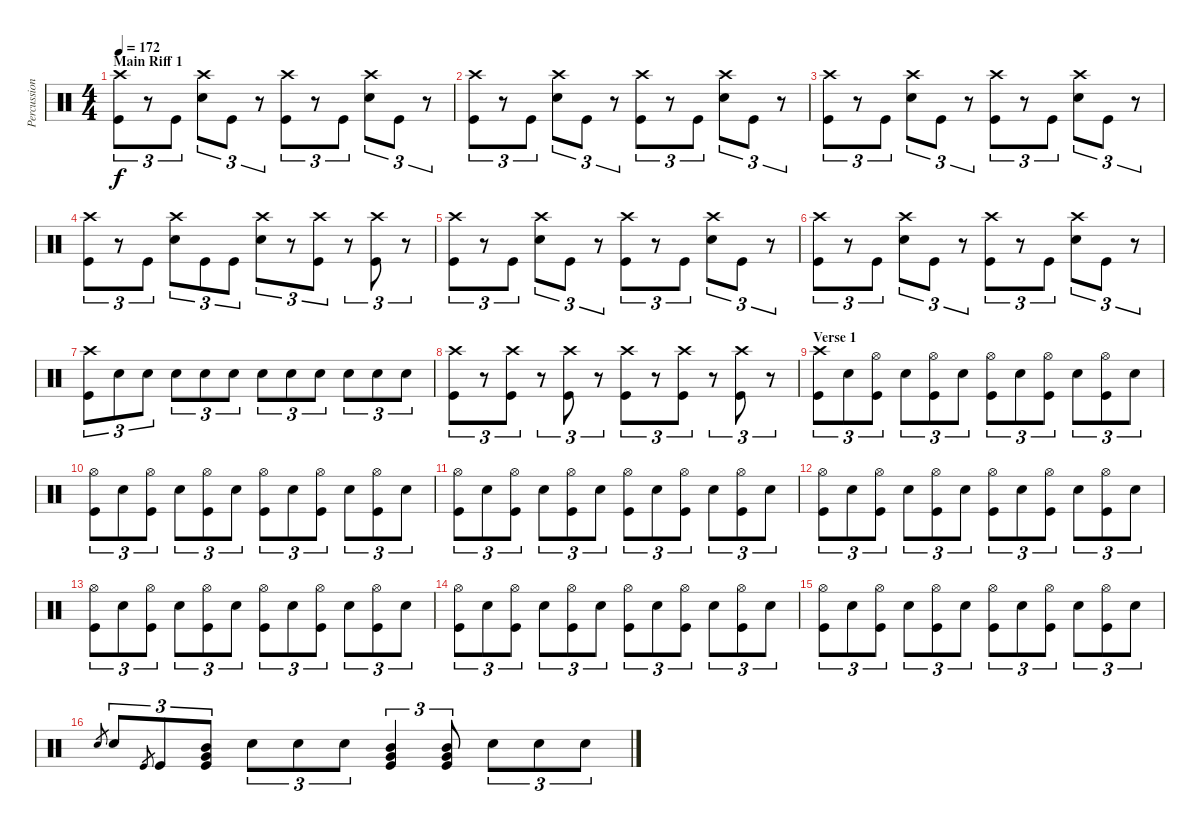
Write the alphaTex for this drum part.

\track ("Percussion" "Percussion") {instrument percussion}
\staff {score}
\articulation defaults
\ts (4 4)
\section ("" "Main Riff 1")
\tempo 172
\clef neutral
\ks c
("Crash high (hit)" "Kick (hit)").8{tu (3 2) dy f} r.8{tu (3 2)} "Kick (hit)".8{tu (3 2)} ("Crash high (hit)" "Snare (hit) 2").8{tu (3 2)} "Kick (hit)".8{tu (3 2)} r.8{tu (3 2)} ("Crash high (hit)" "Kick (hit)").8{tu (3 2)} r.8{tu (3 2)} "Kick (hit)".8{tu (3 2)} ("Crash high (hit)" "Snare (hit) 2").8{tu (3 2)} "Kick (hit)".8{tu (3 2)} r.8{tu (3 2)} |
("Crash high (hit)" "Kick (hit)").8{tu (3 2)} r.8{tu (3 2)} "Kick (hit)".8{tu (3 2)} ("Crash high (hit)" "Snare (hit) 2").8{tu (3 2)} "Kick (hit)".8{tu (3 2)} r.8{tu (3 2)} ("Crash high (hit)" "Kick (hit)").8{tu (3 2)} r.8{tu (3 2)} "Kick (hit)".8{tu (3 2)} ("Crash high (hit)" "Snare (hit) 2").8{tu (3 2)} "Kick (hit)".8{tu (3 2)} r.8{tu (3 2)} |
("Crash high (hit)" "Kick (hit)").8{tu (3 2)} r.8{tu (3 2)} "Kick (hit)".8{tu (3 2)} ("Crash high (hit)" "Snare (hit) 2").8{tu (3 2)} "Kick (hit)".8{tu (3 2)} r.8{tu (3 2)} ("Crash high (hit)" "Kick (hit)").8{tu (3 2)} r.8{tu (3 2)} "Kick (hit)".8{tu (3 2)} ("Crash high (hit)" "Snare (hit) 2").8{tu (3 2)} "Kick (hit)".8{tu (3 2)} r.8{tu (3 2)} |
("Crash high (hit)" "Kick (hit)").8{tu (3 2)} r.8{tu (3 2)} "Kick (hit)".8{tu (3 2)} ("Crash high (hit)" "Snare (hit) 2").8{tu (3 2)} "Kick (hit)".8{tu (3 2)} "Kick (hit)".8{tu (3 2)} ("Crash high (hit)" "Snare (hit) 2").8{tu (3 2)} r.8{tu (3 2)} ("Crash high (hit)" "Kick (hit)").8{tu (3 2)} r.8{tu (3 2)} ("Crash high (hit)" "Kick (hit)").8{tu (3 2)} r.8{tu (3 2)} |
("Crash high (hit)" "Kick (hit)").8{tu (3 2)} r.8{tu (3 2)} "Kick (hit)".8{tu (3 2)} ("Crash high (hit)" "Snare (hit) 2").8{tu (3 2)} "Kick (hit)".8{tu (3 2)} r.8{tu (3 2)} ("Crash high (hit)" "Kick (hit)").8{tu (3 2)} r.8{tu (3 2)} "Kick (hit)".8{tu (3 2)} ("Crash high (hit)" "Snare (hit) 2").8{tu (3 2)} "Kick (hit)".8{tu (3 2)} r.8{tu (3 2)} |
("Crash high (hit)" "Kick (hit)").8{tu (3 2)} r.8{tu (3 2)} "Kick (hit)".8{tu (3 2)} ("Crash high (hit)" "Snare (hit) 2").8{tu (3 2)} "Kick (hit)".8{tu (3 2)} r.8{tu (3 2)} ("Crash high (hit)" "Kick (hit)").8{tu (3 2)} r.8{tu (3 2)} "Kick (hit)".8{tu (3 2)} ("Crash high (hit)" "Snare (hit) 2").8{tu (3 2)} "Kick (hit)".8{tu (3 2)} r.8{tu (3 2)} |
("Crash high (hit)" "Kick (hit)").8{tu (3 2)} "Snare (hit) 2".8{tu (3 2)} "Snare (hit) 2".8{tu (3 2)} "Snare (hit) 2".8{tu (3 2)} "Snare (hit) 2".8{tu (3 2)} "Snare (hit) 2".8{tu (3 2)} "Snare (hit) 2".8{tu (3 2)} "Snare (hit) 2".8{tu (3 2)} "Snare (hit) 2".8{tu (3 2)} "Snare (hit) 2".8{tu (3 2)} "Snare (hit) 2".8{tu (3 2)} "Snare (hit) 2".8{tu (3 2)} |
("Crash high (hit)" "Kick (hit)").8{tu (3 2)} r.8{tu (3 2)} ("Crash high (hit)" "Kick (hit)").8{tu (3 2)} r.8{tu (3 2)} ("Crash high (hit)" "Kick (hit)").8{tu (3 2)} r.8{tu (3 2)} ("Crash high (hit)" "Kick (hit)").8{tu (3 2)} r.8{tu (3 2)} ("Crash high (hit)" "Kick (hit)").8{tu (3 2)} r.8{tu (3 2)} ("Crash high (hit)" "Kick (hit)").8{tu (3 2)} r.8{tu (3 2)} |
\section ("" "Verse 1")
("Crash high (hit)" "Kick (hit)").8{tu (3 2)} "Snare (hit) 2".8{tu (3 2)} ("Hi-Hat (open)" "Kick (hit)").8{tu (3 2)} "Snare (hit) 2".8{tu (3 2)} ("Hi-Hat (open)" "Kick (hit)").8{tu (3 2)} "Snare (hit) 2".8{tu (3 2)} ("Hi-Hat (open)" "Kick (hit)").8{tu (3 2)} "Snare (hit) 2".8{tu (3 2)} ("Hi-Hat (open)" "Kick (hit)").8{tu (3 2)} "Snare (hit) 2".8{tu (3 2)} ("Hi-Hat (open)" "Kick (hit)").8{tu (3 2)} "Snare (hit) 2".8{tu (3 2)} |
("Hi-Hat (open)" "Kick (hit)").8{tu (3 2)} "Snare (hit) 2".8{tu (3 2)} ("Hi-Hat (open)" "Kick (hit)").8{tu (3 2)} "Snare (hit) 2".8{tu (3 2)} ("Hi-Hat (open)" "Kick (hit)").8{tu (3 2)} "Snare (hit) 2".8{tu (3 2)} ("Hi-Hat (open)" "Kick (hit)").8{tu (3 2)} "Snare (hit) 2".8{tu (3 2)} ("Hi-Hat (open)" "Kick (hit)").8{tu (3 2)} "Snare (hit) 2".8{tu (3 2)} ("Hi-Hat (open)" "Kick (hit)").8{tu (3 2)} "Snare (hit) 2".8{tu (3 2)} |
("Hi-Hat (open)" "Kick (hit)").8{tu (3 2)} "Snare (hit) 2".8{tu (3 2)} ("Hi-Hat (open)" "Kick (hit)").8{tu (3 2)} "Snare (hit) 2".8{tu (3 2)} ("Hi-Hat (open)" "Kick (hit)").8{tu (3 2)} "Snare (hit) 2".8{tu (3 2)} ("Hi-Hat (open)" "Kick (hit)").8{tu (3 2)} "Snare (hit) 2".8{tu (3 2)} ("Hi-Hat (open)" "Kick (hit)").8{tu (3 2)} "Snare (hit) 2".8{tu (3 2)} ("Hi-Hat (open)" "Kick (hit)").8{tu (3 2)} "Snare (hit) 2".8{tu (3 2)} |
("Hi-Hat (open)" "Kick (hit)").8{tu (3 2)} "Snare (hit) 2".8{tu (3 2)} ("Hi-Hat (open)" "Kick (hit)").8{tu (3 2)} "Snare (hit) 2".8{tu (3 2)} ("Hi-Hat (open)" "Kick (hit)").8{tu (3 2)} "Snare (hit) 2".8{tu (3 2)} ("Hi-Hat (open)" "Kick (hit)").8{tu (3 2)} "Snare (hit) 2".8{tu (3 2)} ("Hi-Hat (open)" "Kick (hit)").8{tu (3 2)} "Snare (hit) 2".8{tu (3 2)} ("Hi-Hat (open)" "Kick (hit)").8{tu (3 2)} "Snare (hit) 2".8{tu (3 2)} |
("Hi-Hat (open)" "Kick (hit)").8{tu (3 2)} "Snare (hit) 2".8{tu (3 2)} ("Hi-Hat (open)" "Kick (hit)").8{tu (3 2)} "Snare (hit) 2".8{tu (3 2)} ("Hi-Hat (open)" "Kick (hit)").8{tu (3 2)} "Snare (hit) 2".8{tu (3 2)} ("Hi-Hat (open)" "Kick (hit)").8{tu (3 2)} "Snare (hit) 2".8{tu (3 2)} ("Hi-Hat (open)" "Kick (hit)").8{tu (3 2)} "Snare (hit) 2".8{tu (3 2)} ("Hi-Hat (open)" "Kick (hit)").8{tu (3 2)} "Snare (hit) 2".8{tu (3 2)} |
("Hi-Hat (open)" "Kick (hit)").8{tu (3 2)} "Snare (hit) 2".8{tu (3 2)} ("Hi-Hat (open)" "Kick (hit)").8{tu (3 2)} "Snare (hit) 2".8{tu (3 2)} ("Hi-Hat (open)" "Kick (hit)").8{tu (3 2)} "Snare (hit) 2".8{tu (3 2)} ("Hi-Hat (open)" "Kick (hit)").8{tu (3 2)} "Snare (hit) 2".8{tu (3 2)} ("Hi-Hat (open)" "Kick (hit)").8{tu (3 2)} "Snare (hit) 2".8{tu (3 2)} ("Hi-Hat (open)" "Kick (hit)").8{tu (3 2)} "Snare (hit) 2".8{tu (3 2)} |
("Hi-Hat (open)" "Kick (hit)").8{tu (3 2)} "Snare (hit) 2".8{tu (3 2)} ("Hi-Hat (open)" "Kick (hit)").8{tu (3 2)} "Snare (hit) 2".8{tu (3 2)} ("Hi-Hat (open)" "Kick (hit)").8{tu (3 2)} "Snare (hit) 2".8{tu (3 2)} ("Hi-Hat (open)" "Kick (hit)").8{tu (3 2)} "Snare (hit) 2".8{tu (3 2)} ("Hi-Hat (open)" "Kick (hit)").8{tu (3 2)} "Snare (hit) 2".8{tu (3 2)} ("Hi-Hat (open)" "Kick (hit)").8{tu (3 2)} "Snare (hit) 2".8{tu (3 2)} |
"Snare (hit) 2".8{gr} "Snare (hit) 2".8{tu (3 2)} "Kick (hit)".8{gr} "Kick (hit)".8{tu (3 2)} ("Mid Tom (hit)" "Very Low Tom (hit)" "Kick (hit)").8{tu (3 2)} "Snare (hit) 2".8{tu (3 2)} "Snare (hit) 2".8{tu (3 2)} "Snare (hit) 2".8{tu (3 2)} ("Mid Tom (hit)" "Very Low Tom (hit)" "Kick (hit)").4{tu (3 2)} ("Mid Tom (hit)" "Very Low Tom (hit)" "Kick (hit)").8{tu (3 2)} "Snare (hit) 2".8{tu (3 2)} "Snare (hit) 2".8{tu (3 2)} "Snare (hit) 2".8{tu (3 2)}
